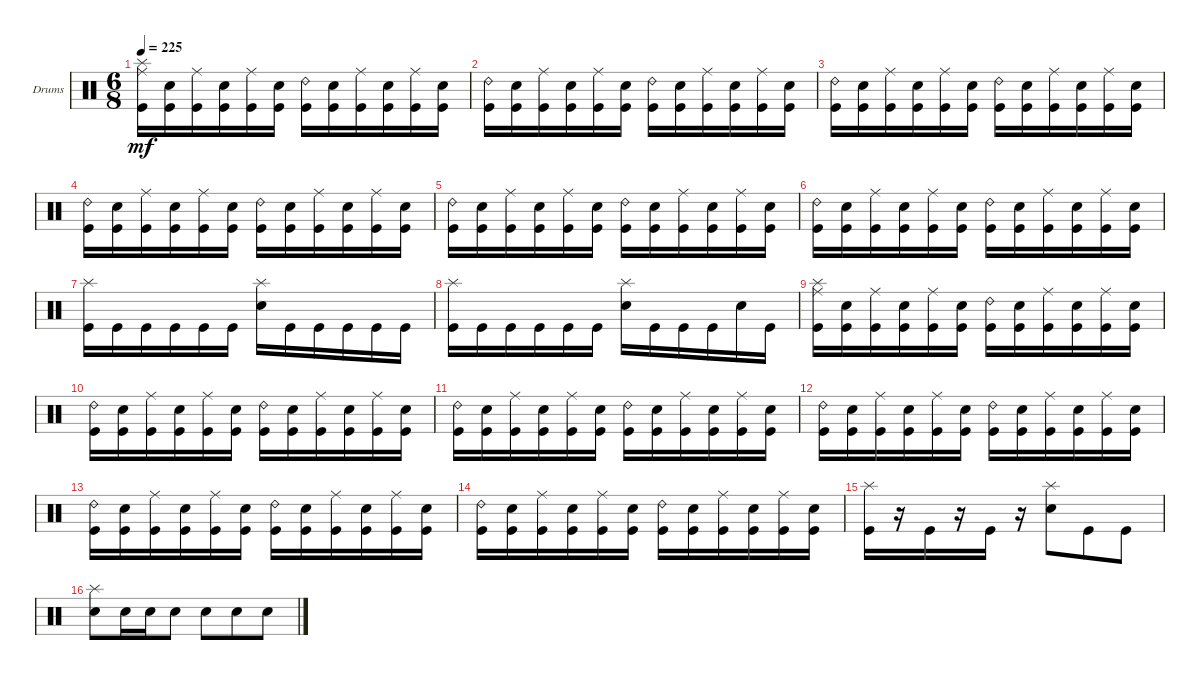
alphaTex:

\bracketExtendMode groupsimilarinstruments
\firstSystemTrackNameOrientation horizontal
\otherSystemsTrackNameOrientation horizontal
\track ("Drumkit" "Drums") {solo instrument percussion}
\staff {score}
\articulation defaults
\ts (6 8)
\tempo 225
\clef neutral
\ks c
("Kick (hit)" "Ride (middle)" "Splash (hit)").16{dy mf} ("Kick (hit)" "Snare (hit) 2").16 ("Kick (hit)" "Ride (middle)").16 ("Kick (hit)" "Snare (hit) 2").16 ("Kick (hit)" "Ride (middle)").16 ("Kick (hit)" "Snare (hit) 2").16 ("Kick (hit)" "Ride (bell) 2").16 ("Kick (hit)" "Snare (hit) 2").16 ("Kick (hit)" "Ride (middle)").16 ("Kick (hit)" "Snare (hit) 2").16 ("Kick (hit)" "Ride (middle)").16 ("Kick (hit)" "Snare (hit) 2").16 |
("Kick (hit)" "Ride (bell) 2").16 ("Kick (hit)" "Snare (hit) 2").16 ("Kick (hit)" "Ride (middle)").16 ("Kick (hit)" "Snare (hit) 2").16 ("Kick (hit)" "Ride (middle)").16 ("Kick (hit)" "Snare (hit) 2").16 ("Kick (hit)" "Ride (bell) 2").16 ("Kick (hit)" "Snare (hit) 2").16 ("Kick (hit)" "Ride (middle)").16 ("Kick (hit)" "Snare (hit) 2").16 ("Kick (hit)" "Ride (middle)").16 ("Kick (hit)" "Snare (hit) 2").16 |
("Kick (hit)" "Ride (bell) 2").16 ("Kick (hit)" "Snare (hit) 2").16 ("Kick (hit)" "Ride (middle)").16 ("Kick (hit)" "Snare (hit) 2").16 ("Kick (hit)" "Ride (middle)").16 ("Kick (hit)" "Snare (hit) 2").16 ("Kick (hit)" "Ride (bell) 2").16 ("Kick (hit)" "Snare (hit) 2").16 ("Kick (hit)" "Ride (middle)").16 ("Kick (hit)" "Snare (hit) 2").16 ("Kick (hit)" "Ride (middle)").16 ("Kick (hit)" "Snare (hit) 2").16 |
("Kick (hit)" "Ride (bell) 2").16 ("Kick (hit)" "Snare (hit) 2").16 ("Kick (hit)" "Ride (middle)").16 ("Kick (hit)" "Snare (hit) 2").16 ("Kick (hit)" "Ride (middle)").16 ("Kick (hit)" "Snare (hit) 2").16 ("Kick (hit)" "Ride (bell) 2").16 ("Kick (hit)" "Snare (hit) 2").16 ("Kick (hit)" "Ride (middle)").16 ("Kick (hit)" "Snare (hit) 2").16 ("Kick (hit)" "Ride (middle)").16 ("Kick (hit)" "Snare (hit) 2").16 |
("Kick (hit)" "Ride (bell) 2").16 ("Kick (hit)" "Snare (hit) 2").16 ("Kick (hit)" "Ride (middle)").16 ("Kick (hit)" "Snare (hit) 2").16 ("Kick (hit)" "Ride (middle)").16 ("Kick (hit)" "Snare (hit) 2").16 ("Kick (hit)" "Ride (bell) 2").16 ("Kick (hit)" "Snare (hit) 2").16 ("Kick (hit)" "Ride (middle)").16 ("Kick (hit)" "Snare (hit) 2").16 ("Kick (hit)" "Ride (middle)").16 ("Kick (hit)" "Snare (hit) 2").16 |
("Kick (hit)" "Ride (bell) 2").16 ("Kick (hit)" "Snare (hit) 2").16 ("Kick (hit)" "Ride (middle)").16 ("Kick (hit)" "Snare (hit) 2").16 ("Kick (hit)" "Ride (middle)").16 ("Kick (hit)" "Snare (hit) 2").16 ("Kick (hit)" "Ride (bell) 2").16 ("Kick (hit)" "Snare (hit) 2").16 ("Kick (hit)" "Ride (middle)").16 ("Kick (hit)" "Snare (hit) 2").16 ("Kick (hit)" "Ride (middle)").16 ("Kick (hit)" "Snare (hit) 2").16 |
("Kick (hit)" "Splash (hit)").16 "Kick (hit)".16 "Kick (hit)".16 "Kick (hit)".16 "Kick (hit)".16 "Kick (hit)".16 ("Snare (hit) 2" "Splash (hit)").16 "Kick (hit)".16 "Kick (hit)".16 "Kick (hit)".16 "Kick (hit)".16 "Kick (hit)".16 |
("Kick (hit)" "Splash (hit)").16 "Kick (hit)".16 "Kick (hit)".16 "Kick (hit)".16 "Kick (hit)".16 "Kick (hit)".16 ("Snare (hit) 2" "Splash (hit)").16 "Kick (hit)".16 "Kick (hit)".16 "Kick (hit)".16 "Snare (hit) 2".16 "Kick (hit)".16 |
("Kick (hit)" "Ride (middle)" "Splash (hit)").16 ("Kick (hit)" "Snare (hit) 2").16 ("Kick (hit)" "Ride (middle)").16 ("Kick (hit)" "Snare (hit) 2").16 ("Kick (hit)" "Ride (middle)").16 ("Kick (hit)" "Snare (hit) 2").16 ("Kick (hit)" "Ride (bell) 2").16 ("Kick (hit)" "Snare (hit) 2").16 ("Kick (hit)" "Ride (middle)").16 ("Kick (hit)" "Snare (hit) 2").16 ("Kick (hit)" "Ride (middle)").16 ("Kick (hit)" "Snare (hit) 2").16 |
("Kick (hit)" "Ride (bell) 2").16 ("Kick (hit)" "Snare (hit) 2").16 ("Kick (hit)" "Ride (middle)").16 ("Kick (hit)" "Snare (hit) 2").16 ("Kick (hit)" "Ride (middle)").16 ("Kick (hit)" "Snare (hit) 2").16 ("Kick (hit)" "Ride (bell) 2").16 ("Kick (hit)" "Snare (hit) 2").16 ("Kick (hit)" "Ride (middle)").16 ("Kick (hit)" "Snare (hit) 2").16 ("Kick (hit)" "Ride (middle)").16 ("Kick (hit)" "Snare (hit) 2").16 |
("Kick (hit)" "Ride (bell) 2").16 ("Kick (hit)" "Snare (hit) 2").16 ("Kick (hit)" "Ride (middle)").16 ("Kick (hit)" "Snare (hit) 2").16 ("Kick (hit)" "Ride (middle)").16 ("Kick (hit)" "Snare (hit) 2").16 ("Kick (hit)" "Ride (bell) 2").16 ("Kick (hit)" "Snare (hit) 2").16 ("Kick (hit)" "Ride (middle)").16 ("Kick (hit)" "Snare (hit) 2").16 ("Kick (hit)" "Ride (middle)").16 ("Kick (hit)" "Snare (hit) 2").16 |
("Kick (hit)" "Ride (bell) 2").16 ("Kick (hit)" "Snare (hit) 2").16 ("Kick (hit)" "Ride (middle)").16 ("Kick (hit)" "Snare (hit) 2").16 ("Kick (hit)" "Ride (middle)").16 ("Kick (hit)" "Snare (hit) 2").16 ("Kick (hit)" "Ride (bell) 2").16 ("Kick (hit)" "Snare (hit) 2").16 ("Kick (hit)" "Ride (middle)").16 ("Kick (hit)" "Snare (hit) 2").16 ("Kick (hit)" "Ride (middle)").16 ("Kick (hit)" "Snare (hit) 2").16 |
("Kick (hit)" "Ride (bell) 2").16 ("Kick (hit)" "Snare (hit) 2").16 ("Kick (hit)" "Ride (middle)").16 ("Kick (hit)" "Snare (hit) 2").16 ("Kick (hit)" "Ride (middle)").16 ("Kick (hit)" "Snare (hit) 2").16 ("Kick (hit)" "Ride (bell) 2").16 ("Kick (hit)" "Snare (hit) 2").16 ("Kick (hit)" "Ride (middle)").16 ("Kick (hit)" "Snare (hit) 2").16 ("Kick (hit)" "Ride (middle)").16 ("Kick (hit)" "Snare (hit) 2").16 |
("Kick (hit)" "Ride (bell) 2").16 ("Kick (hit)" "Snare (hit) 2").16 ("Kick (hit)" "Ride (middle)").16 ("Kick (hit)" "Snare (hit) 2").16 ("Kick (hit)" "Ride (middle)").16 ("Kick (hit)" "Snare (hit) 2").16 ("Kick (hit)" "Ride (bell) 2").16 ("Kick (hit)" "Snare (hit) 2").16 ("Kick (hit)" "Ride (middle)").16 ("Kick (hit)" "Snare (hit) 2").16 ("Kick (hit)" "Ride (middle)").16 ("Kick (hit)" "Snare (hit) 2").16 |
("Kick (hit)" "Splash (hit)").16 r.16 "Kick (hit)".16 r.16 "Kick (hit)".16 r.16 ("Snare (hit) 2" "Splash (hit)").8 "Kick (hit)".8 "Kick (hit)".8 |
("Snare (hit) 2" "Splash (hit)").8 "Snare (hit) 2".16 "Snare (hit) 2".16 "Snare (hit) 2".8 "Snare (hit) 2".8 "Snare (hit) 2".8 "Snare (hit) 2".8
